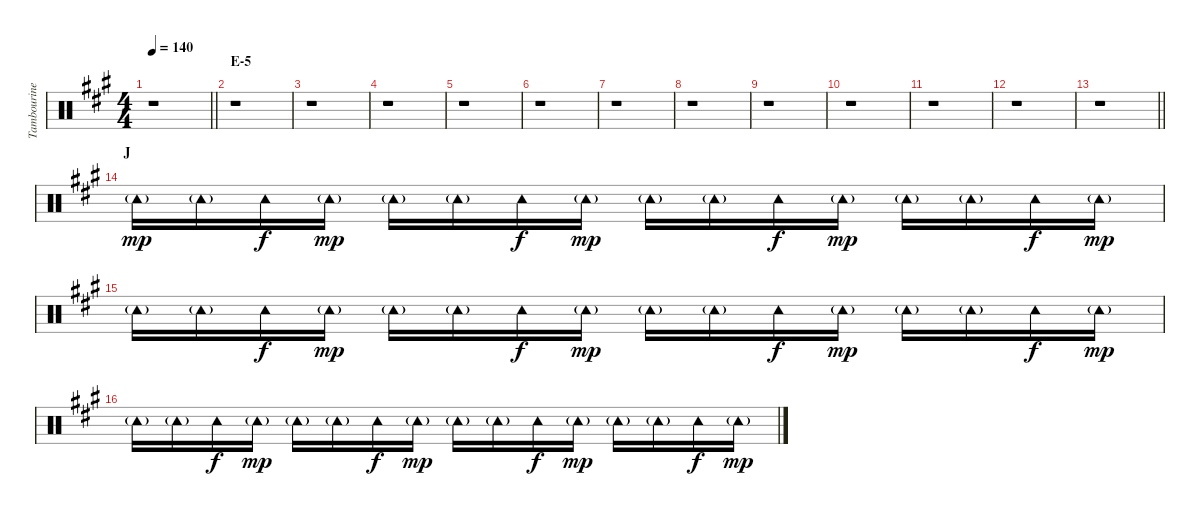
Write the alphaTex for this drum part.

\track ("Tambourine" "Tambourine") {instrument percussion}
\staff {score}
\articulation defaults
\ts (4 4)
\tempo 140
\clef neutral
\barLineRight lightlight
\ks a
r.1{dy mp} |
\section ("" "E-5")
r.1 |
r.1 |
r.1 |
r.1 |
r.1 |
r.1 |
r.1 |
r.1 |
r.1 |
r.1 |
r.1 |
\barLineRight lightlight
r.1 |
\section ("" "J")
"Tambourine (hit)"{g}.16 "Tambourine (hit)"{g}.16 "Tambourine (hit)".16{dy f} "Tambourine (hit)"{g}.16{dy mp} "Tambourine (hit)"{g}.16 "Tambourine (hit)"{g}.16 "Tambourine (hit)".16{dy f} "Tambourine (hit)"{g}.16{dy mp} "Tambourine (hit)"{g}.16 "Tambourine (hit)"{g}.16 "Tambourine (hit)".16{dy f} "Tambourine (hit)"{g}.16{dy mp} "Tambourine (hit)"{g}.16 "Tambourine (hit)"{g}.16 "Tambourine (hit)".16{dy f} "Tambourine (hit)"{g}.16{dy mp} |
"Tambourine (hit)"{g}.16 "Tambourine (hit)"{g}.16 "Tambourine (hit)".16{dy f} "Tambourine (hit)"{g}.16{dy mp} "Tambourine (hit)"{g}.16 "Tambourine (hit)"{g}.16 "Tambourine (hit)".16{dy f} "Tambourine (hit)"{g}.16{dy mp} "Tambourine (hit)"{g}.16 "Tambourine (hit)"{g}.16 "Tambourine (hit)".16{dy f} "Tambourine (hit)"{g}.16{dy mp} "Tambourine (hit)"{g}.16 "Tambourine (hit)"{g}.16 "Tambourine (hit)".16{dy f} "Tambourine (hit)"{g}.16{dy mp} |
"Tambourine (hit)"{g}.16 "Tambourine (hit)"{g}.16 "Tambourine (hit)".16{dy f} "Tambourine (hit)"{g}.16{dy mp} "Tambourine (hit)"{g}.16 "Tambourine (hit)"{g}.16 "Tambourine (hit)".16{dy f} "Tambourine (hit)"{g}.16{dy mp} "Tambourine (hit)"{g}.16 "Tambourine (hit)"{g}.16 "Tambourine (hit)".16{dy f} "Tambourine (hit)"{g}.16{dy mp} "Tambourine (hit)"{g}.16 "Tambourine (hit)"{g}.16 "Tambourine (hit)".16{dy f} "Tambourine (hit)"{g}.16{dy mp}
